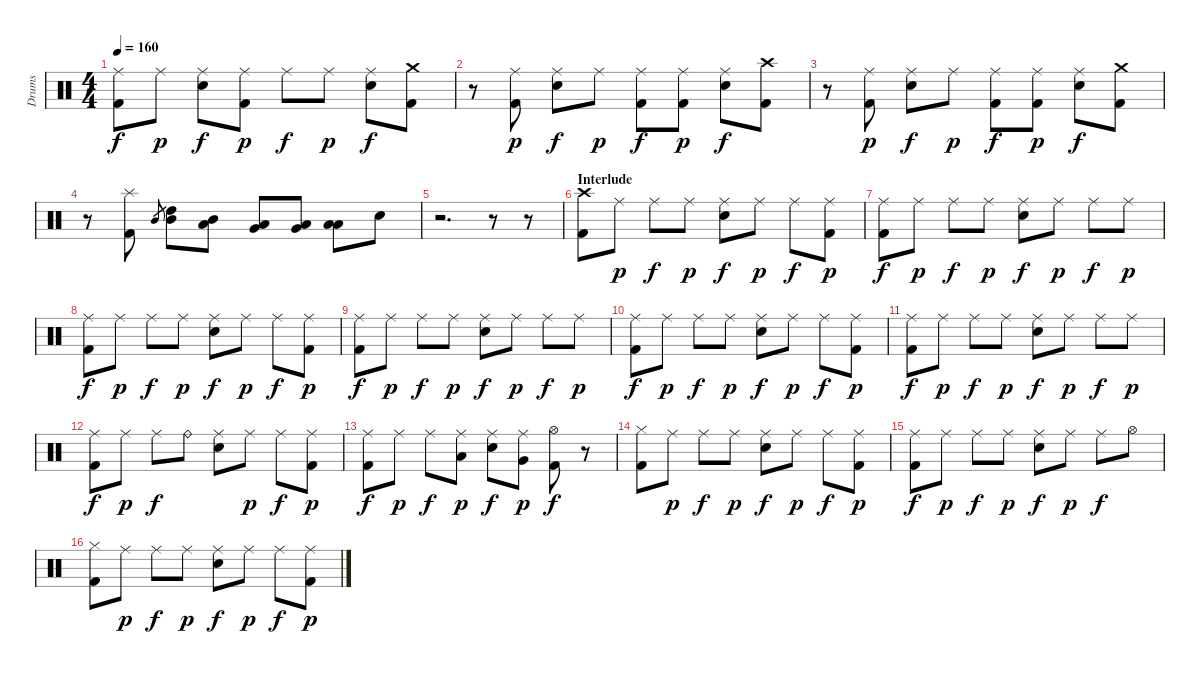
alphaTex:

\track ("Drums" "Drums") {instrument percussion}
\staff {score}
\articulation defaults
\ts (4 4)
\tempo 160
\clef neutral
\ks c
("Ride (middle)" "Kick (hit) 2").8{dy f} "Ride (middle)".8{dy p} ("Ride (middle)" "Snare (hit) 2").8{dy f} ("Ride (middle)" "Kick (hit) 2").8{dy p} "Ride (middle)".8{dy f} "Ride (middle)".8{dy p} ("Ride (middle)" "Snare (hit) 2").8{dy f} ("Crash medium (hit)" "Kick (hit) 2").8 |
r.8 ("Ride (middle)" "Kick (hit) 2").8{dy p} ("Ride (middle)" "Snare (hit) 2").8{dy f} "Ride (middle)".8{dy p} ("Ride (middle)" "Kick (hit) 2").8{dy f} ("Ride (middle)" "Kick (hit) 2").8{dy p} ("Ride (middle)" "Snare (hit) 2").8{dy f} ("Crash high (hit)" "Kick (hit) 2").8 |
r.8 ("Ride (middle)" "Kick (hit) 2").8{dy p} ("Ride (middle)" "Snare (hit) 2").8{dy f} "Ride (middle)".8{dy p} ("Ride (middle)" "Kick (hit) 2").8{dy f} ("Ride (middle)" "Kick (hit) 2").8{dy p} ("Ride (middle)" "Snare (hit) 2").8{dy f} ("Crash medium (hit)" "Kick (hit) 2").8 |
r.8 ("Splash (hit)" "Kick (hit) 2").8 "Mid Tom (hit)".8{gr} ("High Tom (hit)" "Mid Tom (hit)").8 ("Mid Tom (hit)" "Low Tom (hit)").8 ("Low Tom (hit)" "Very Low Tom (hit)").8 ("Very Low Tom (hit)" "Low Floor Tom (hit)").8 ("Low Floor Tom (hit)" "Low Floor Tom (hit)").8 "Snare (hit) 2".8 |
r.2{d} r.8 r.8 |
\section ("" "Interlude")
("Crash high (hit)" "Kick (hit) 2").8 "Ride (middle)".8{dy p} "Ride (middle)".8{dy f} "Ride (middle)".8{dy p} ("Ride (middle)" "Snare (hit) 2").8{dy f} "Ride (middle)".8{dy p} "Ride (middle)".8{dy f} ("Ride (middle)" "Kick (hit) 2").8{dy p} |
("Ride (middle)" "Kick (hit) 2").8{dy f} "Ride (middle)".8{dy p} "Ride (middle)".8{dy f} "Ride (middle)".8{dy p} ("Ride (middle)" "Snare (hit) 2").8{dy f} "Ride (middle)".8{dy p} "Ride (middle)".8{dy f} "Ride (middle)".8{dy p} |
("Ride (middle)" "Kick (hit) 2").8{dy f} "Ride (middle)".8{dy p} "Ride (middle)".8{dy f} "Ride (middle)".8{dy p} ("Ride (middle)" "Snare (hit) 2").8{dy f} "Ride (middle)".8{dy p} "Ride (middle)".8{dy f} ("Ride (middle)" "Kick (hit) 2").8{dy p} |
("Ride (middle)" "Kick (hit) 2").8{dy f} "Ride (middle)".8{dy p} "Ride (middle)".8{dy f} "Ride (middle)".8{dy p} ("Ride (middle)" "Snare (hit) 2").8{dy f} "Ride (middle)".8{dy p} "Ride (middle)".8{dy f} "Ride (middle)".8{dy p} |
("Ride (middle)" "Kick (hit) 2").8{dy f} "Ride (middle)".8{dy p} "Ride (middle)".8{dy f} "Ride (middle)".8{dy p} ("Ride (middle)" "Snare (hit) 2").8{dy f} "Ride (middle)".8{dy p} "Ride (middle)".8{dy f} ("Ride (middle)" "Kick (hit) 2").8{dy p} |
("Ride (middle)" "Kick (hit) 2").8{dy f} "Ride (middle)".8{dy p} "Ride (middle)".8{dy f} "Ride (middle)".8{dy p} ("Ride (middle)" "Snare (hit) 2").8{dy f} "Ride (middle)".8{dy p} "Ride (middle)".8{dy f} "Ride (middle)".8{dy p} |
("Ride (middle)" "Kick (hit) 2").8{dy f} "Ride (middle)".8{dy p} "Ride (middle)".8{dy f} "Ride (bell)".8 ("Ride (middle)" "Snare (hit) 2").8 "Ride (middle)".8{dy p} "Ride (middle)".8{dy f} ("Ride (middle)" "Kick (hit) 2").8{dy p} |
("Ride (middle)" "Kick (hit) 2").8{dy f} "Ride (middle)".8{dy p} "Ride (middle)".8{dy f} ("Ride (middle)" "Low Tom (hit)").8{dy p} ("Ride (middle)" "Snare (hit) 2").8{dy f} ("Ride (middle)" "Very Low Tom (hit)").8{dy p} ("Hi-Hat (open)" "Kick (hit) 2").8{dy f} r.8 |
("Hi-Hat (closed)" "Kick (hit) 2").8 "Ride (middle)".8{dy p} "Ride (middle)".8{dy f} "Ride (middle)".8{dy p} ("Ride (middle)" "Snare (hit) 2").8{dy f} "Ride (middle)".8{dy p} "Ride (middle)".8{dy f} ("Ride (middle)" "Kick (hit) 2").8{dy p} |
("Ride (middle)" "Kick (hit) 2").8{dy f} "Ride (middle)".8{dy p} "Ride (middle)".8{dy f} "Ride (middle)".8{dy p} ("Ride (middle)" "Snare (hit) 2").8{dy f} "Ride (middle)".8{dy p} "Ride (middle)".8{dy f} "Hi-Hat (open)".8 |
("Hi-Hat (closed)" "Kick (hit) 2").8 "Ride (middle)".8{dy p} "Ride (middle)".8{dy f} "Ride (middle)".8{dy p} ("Ride (middle)" "Snare (hit) 2").8{dy f} "Ride (middle)".8{dy p} "Ride (middle)".8{dy f} ("Ride (middle)" "Kick (hit) 2").8{dy p}
